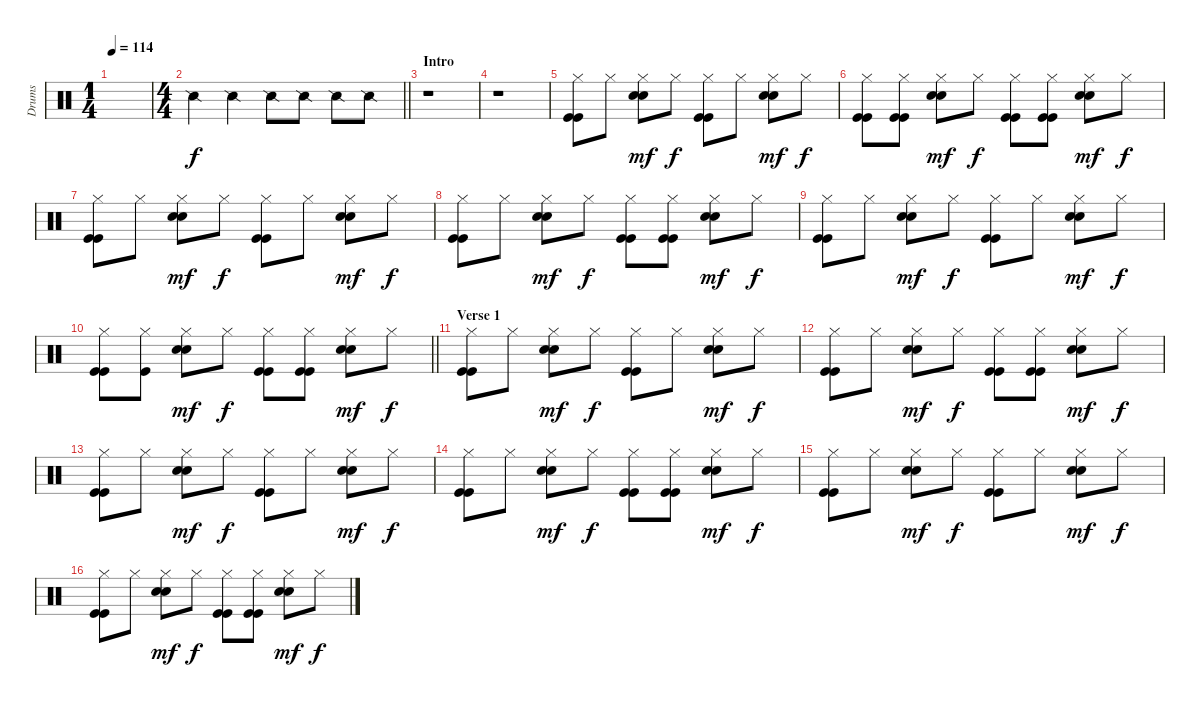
\track ("Drums" "Drums") {instrument percussion}
\staff {score}
\articulation defaults
\ts (1 4)
\tempo 114
\clef neutral
\ks c
|
\ts (4 4)
\barLineRight lightlight "Snare (side stick) 2".4 "Snare (side stick) 2".4 "Snare (side stick) 2".8 "Snare (side stick) 2".8 "Snare (side stick) 2".8 "Snare (side stick) 2".8
|
\section ("" "Intro")
r.1 |
r.1 |
("Kick (hit)" "Kick (hit)" "Hi-Hat (closed)").8 "Hi-Hat (closed)".8 ("Snare (hit) 2" "Snare (hit) 2" "Hi-Hat (closed)").8{dy mf} "Hi-Hat (closed)".8{dy f} ("Kick (hit)" "Kick (hit)" "Hi-Hat (closed)").8 "Hi-Hat (closed)".8 ("Snare (hit) 2" "Snare (hit) 2" "Hi-Hat (closed)").8{dy mf} "Hi-Hat (closed)".8{dy f} |
("Kick (hit)" "Kick (hit)" "Hi-Hat (closed)").8 ("Kick (hit)" "Kick (hit)" "Hi-Hat (closed)").8 ("Snare (hit) 2" "Snare (hit) 2" "Hi-Hat (closed)").8{dy mf} "Hi-Hat (closed)".8{dy f} ("Kick (hit)" "Kick (hit)" "Hi-Hat (closed)").8 ("Kick (hit)" "Kick (hit)" "Hi-Hat (closed)").8 ("Snare (hit) 2" "Snare (hit) 2" "Hi-Hat (closed)").8{dy mf} "Hi-Hat (closed)".8{dy f} |
("Kick (hit)" "Kick (hit)" "Hi-Hat (closed)").8 "Hi-Hat (closed)".8 ("Snare (hit) 2" "Snare (hit) 2" "Hi-Hat (closed)").8{dy mf} "Hi-Hat (closed)".8{dy f} ("Kick (hit)" "Kick (hit)" "Hi-Hat (closed)").8 "Hi-Hat (closed)".8 ("Snare (hit) 2" "Snare (hit) 2" "Hi-Hat (closed)").8{dy mf} "Hi-Hat (closed)".8{dy f} |
("Kick (hit)" "Kick (hit)" "Hi-Hat (closed)").8 "Hi-Hat (closed)".8 ("Snare (hit) 2" "Snare (hit) 2" "Hi-Hat (closed)").8{dy mf} "Hi-Hat (closed)".8{dy f} ("Kick (hit)" "Kick (hit)" "Hi-Hat (closed)").8 ("Kick (hit)" "Kick (hit)" "Hi-Hat (closed)").8 ("Snare (hit) 2" "Snare (hit) 2" "Hi-Hat (closed)").8{dy mf} "Hi-Hat (closed)".8{dy f} |
("Kick (hit)" "Kick (hit)" "Hi-Hat (closed)").8 "Hi-Hat (closed)".8 ("Snare (hit) 2" "Snare (hit) 2" "Hi-Hat (closed)").8{dy mf} "Hi-Hat (closed)".8{dy f} ("Kick (hit)" "Kick (hit)" "Hi-Hat (closed)").8 "Hi-Hat (closed)".8 ("Snare (hit) 2" "Snare (hit) 2" "Hi-Hat (closed)").8{dy mf} "Hi-Hat (closed)".8{dy f} |
\barLineRight lightlight
("Kick (hit)" "Kick (hit)" "Hi-Hat (closed)").8 ("Kick (hit)" "Hi-Hat (closed)").8 ("Snare (hit) 2" "Snare (hit) 2" "Hi-Hat (closed)").8{dy mf} "Hi-Hat (closed)".8{dy f} ("Kick (hit)" "Kick (hit)" "Hi-Hat (closed)").8 ("Kick (hit)" "Kick (hit)" "Hi-Hat (closed)").8 ("Snare (hit) 2" "Snare (hit) 2" "Hi-Hat (closed)").8{dy mf} "Hi-Hat (closed)".8{dy f} |
\section ("" "Verse 1")
("Kick (hit)" "Kick (hit)" "Hi-Hat (closed)").8 "Hi-Hat (closed)".8 ("Snare (hit) 2" "Snare (hit) 2" "Hi-Hat (closed)").8{dy mf} "Hi-Hat (closed)".8{dy f} ("Kick (hit)" "Kick (hit)" "Hi-Hat (closed)").8 "Hi-Hat (closed)".8 ("Snare (hit) 2" "Snare (hit) 2" "Hi-Hat (closed)").8{dy mf} "Hi-Hat (closed)".8{dy f} |
("Kick (hit)" "Kick (hit)" "Hi-Hat (closed)").8 "Hi-Hat (closed)".8 ("Snare (hit) 2" "Snare (hit) 2" "Hi-Hat (closed)").8{dy mf} "Hi-Hat (closed)".8{dy f} ("Kick (hit)" "Kick (hit)" "Hi-Hat (closed)").8 ("Kick (hit)" "Kick (hit)" "Hi-Hat (closed)").8 ("Snare (hit) 2" "Snare (hit) 2" "Hi-Hat (closed)").8{dy mf} "Hi-Hat (closed)".8{dy f} |
("Kick (hit)" "Kick (hit)" "Hi-Hat (closed)").8 "Hi-Hat (closed)".8 ("Snare (hit) 2" "Snare (hit) 2" "Hi-Hat (closed)").8{dy mf} "Hi-Hat (closed)".8{dy f} ("Kick (hit)" "Kick (hit)" "Hi-Hat (closed)").8 "Hi-Hat (closed)".8 ("Snare (hit) 2" "Snare (hit) 2" "Hi-Hat (closed)").8{dy mf} "Hi-Hat (closed)".8{dy f} |
("Kick (hit)" "Kick (hit)" "Hi-Hat (closed)").8 "Hi-Hat (closed)".8 ("Snare (hit) 2" "Snare (hit) 2" "Hi-Hat (closed)").8{dy mf} "Hi-Hat (closed)".8{dy f} ("Kick (hit)" "Kick (hit)" "Hi-Hat (closed)").8 ("Kick (hit)" "Kick (hit)" "Hi-Hat (closed)").8 ("Snare (hit) 2" "Snare (hit) 2" "Hi-Hat (closed)").8{dy mf} "Hi-Hat (closed)".8{dy f} |
("Kick (hit)" "Kick (hit)" "Hi-Hat (closed)").8 "Hi-Hat (closed)".8 ("Snare (hit) 2" "Snare (hit) 2" "Hi-Hat (closed)").8{dy mf} "Hi-Hat (closed)".8{dy f} ("Kick (hit)" "Kick (hit)" "Hi-Hat (closed)").8 "Hi-Hat (closed)".8 ("Snare (hit) 2" "Snare (hit) 2" "Hi-Hat (closed)").8{dy mf} "Hi-Hat (closed)".8{dy f} |
("Kick (hit)" "Kick (hit)" "Hi-Hat (closed)").8 "Hi-Hat (closed)".8 ("Snare (hit) 2" "Snare (hit) 2" "Hi-Hat (closed)").8{dy mf} "Hi-Hat (closed)".8{dy f} ("Kick (hit)" "Kick (hit)" "Hi-Hat (closed)").8 ("Kick (hit)" "Kick (hit)" "Hi-Hat (closed)").8 ("Snare (hit) 2" "Snare (hit) 2" "Hi-Hat (closed)").8{dy mf} "Hi-Hat (closed)".8{dy f}
